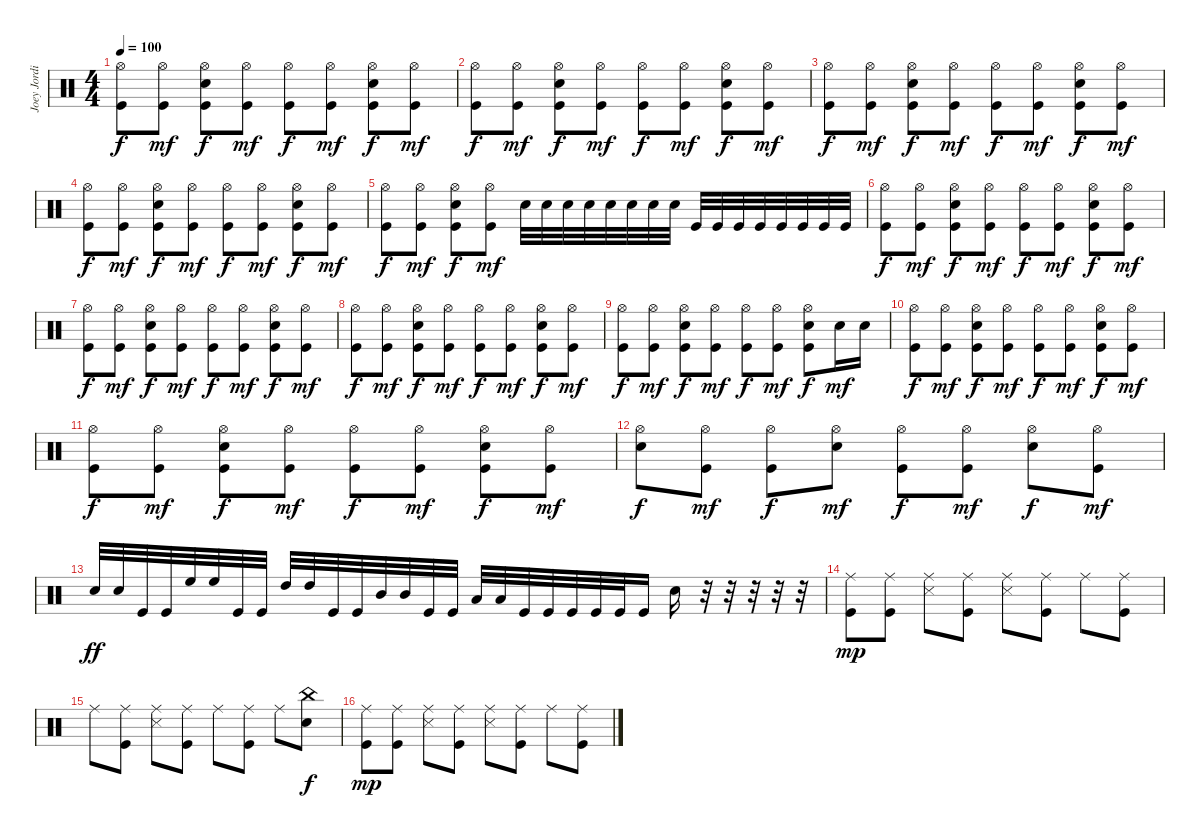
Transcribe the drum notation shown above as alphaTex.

\track ("Joey Jordison" "Joey Jordi") {instrument percussion}
\staff {score}
\articulation defaults
\ts (4 4)
\tempo 100
\clef neutral
\ks c
("Hi-Hat (open)" "Kick (hit)").8{dy f} ("Hi-Hat (open)" "Kick (hit)").8{dy mf} ("Hi-Hat (open)" "Kick (hit)" "Snare (hit) 2").8{dy f} ("Hi-Hat (open)" "Kick (hit)").8{dy mf} ("Hi-Hat (open)" "Kick (hit)").8{dy f} ("Hi-Hat (open)" "Kick (hit)").8{dy mf} ("Hi-Hat (open)" "Kick (hit)" "Snare (hit) 2").8{dy f} ("Hi-Hat (open)" "Kick (hit)").8{dy mf} |
("Hi-Hat (open)" "Kick (hit)").8{dy f} ("Hi-Hat (open)" "Kick (hit)").8{dy mf} ("Hi-Hat (open)" "Kick (hit)" "Snare (hit) 2").8{dy f} ("Hi-Hat (open)" "Kick (hit)").8{dy mf} ("Hi-Hat (open)" "Kick (hit)").8{dy f} ("Hi-Hat (open)" "Kick (hit)").8{dy mf} ("Hi-Hat (open)" "Kick (hit)" "Snare (hit) 2").8{dy f} ("Hi-Hat (open)" "Kick (hit)").8{dy mf} |
("Hi-Hat (open)" "Kick (hit)").8{dy f} ("Hi-Hat (open)" "Kick (hit)").8{dy mf} ("Hi-Hat (open)" "Kick (hit)" "Snare (hit) 2").8{dy f} ("Hi-Hat (open)" "Kick (hit)").8{dy mf} ("Hi-Hat (open)" "Kick (hit)").8{dy f} ("Hi-Hat (open)" "Kick (hit)").8{dy mf} ("Hi-Hat (open)" "Kick (hit)" "Snare (hit) 2").8{dy f} ("Hi-Hat (open)" "Kick (hit)").8{dy mf} |
("Hi-Hat (open)" "Kick (hit)").8{dy f} ("Hi-Hat (open)" "Kick (hit)").8{dy mf} ("Hi-Hat (open)" "Kick (hit)" "Snare (hit) 2").8{dy f} ("Hi-Hat (open)" "Kick (hit)").8{dy mf} ("Hi-Hat (open)" "Kick (hit)").8{dy f} ("Hi-Hat (open)" "Kick (hit)").8{dy mf} ("Hi-Hat (open)" "Kick (hit)" "Snare (hit) 2").8{dy f} ("Hi-Hat (open)" "Kick (hit)").8{dy mf} |
("Hi-Hat (open)" "Kick (hit)").8{dy f} ("Hi-Hat (open)" "Kick (hit)").8{dy mf} ("Hi-Hat (open)" "Kick (hit)" "Snare (hit) 2").8{dy f} ("Hi-Hat (open)" "Kick (hit)").8{dy mf} "Snare (hit) 2".32 "Snare (hit) 2".32 "Snare (hit) 2".32 "Snare (hit) 2".32 "Snare (hit) 2".32 "Snare (hit) 2".32 "Snare (hit) 2".32 "Snare (hit) 2".32 "Kick (hit)".32 "Kick (hit)".32 "Kick (hit)".32 "Kick (hit)".32 "Kick (hit)".32 "Kick (hit)".32 "Kick (hit)".32 "Kick (hit)".32 |
("Hi-Hat (open)" "Kick (hit)").8{dy f} ("Hi-Hat (open)" "Kick (hit)").8{dy mf} ("Hi-Hat (open)" "Kick (hit)" "Snare (hit) 2").8{dy f} ("Hi-Hat (open)" "Kick (hit)").8{dy mf} ("Hi-Hat (open)" "Kick (hit)").8{dy f} ("Hi-Hat (open)" "Kick (hit)").8{dy mf} ("Hi-Hat (open)" "Kick (hit)" "Snare (hit) 2").8{dy f} ("Hi-Hat (open)" "Kick (hit)").8{dy mf} |
("Hi-Hat (open)" "Kick (hit)").8{dy f} ("Hi-Hat (open)" "Kick (hit)").8{dy mf} ("Hi-Hat (open)" "Kick (hit)" "Snare (hit) 2").8{dy f} ("Hi-Hat (open)" "Kick (hit)").8{dy mf} ("Hi-Hat (open)" "Kick (hit)").8{dy f} ("Hi-Hat (open)" "Kick (hit)").8{dy mf} ("Hi-Hat (open)" "Kick (hit)" "Snare (hit) 2").8{dy f} ("Hi-Hat (open)" "Kick (hit)").8{dy mf} |
("Hi-Hat (open)" "Kick (hit)").8{dy f} ("Hi-Hat (open)" "Kick (hit)").8{dy mf} ("Hi-Hat (open)" "Kick (hit)" "Snare (hit) 2").8{dy f} ("Hi-Hat (open)" "Kick (hit)").8{dy mf} ("Hi-Hat (open)" "Kick (hit)").8{dy f} ("Hi-Hat (open)" "Kick (hit)").8{dy mf} ("Hi-Hat (open)" "Kick (hit)" "Snare (hit) 2").8{dy f} ("Hi-Hat (open)" "Kick (hit)").8{dy mf} |
("Hi-Hat (open)" "Kick (hit)").8{dy f} ("Hi-Hat (open)" "Kick (hit)").8{dy mf} ("Hi-Hat (open)" "Kick (hit)" "Snare (hit) 2").8{dy f} ("Hi-Hat (open)" "Kick (hit)").8{dy mf} ("Hi-Hat (open)" "Kick (hit)").8{dy f} ("Hi-Hat (open)" "Kick (hit)").8{dy mf} ("Hi-Hat (open)" "Kick (hit)" "Snare (hit) 2").8{dy f} "Snare (hit) 2".16{dy mf} "Snare (hit) 2".16 |
("Hi-Hat (open)" "Kick (hit)").8{dy f} ("Hi-Hat (open)" "Kick (hit)").8{dy mf} ("Hi-Hat (open)" "Kick (hit)" "Snare (hit) 2").8{dy f} ("Hi-Hat (open)" "Kick (hit)").8{dy mf} ("Hi-Hat (open)" "Kick (hit)").8{dy f} ("Hi-Hat (open)" "Kick (hit)").8{dy mf} ("Hi-Hat (open)" "Kick (hit)" "Snare (hit) 2").8{dy f} ("Hi-Hat (open)" "Kick (hit)").8{dy mf} |
("Hi-Hat (open)" "Kick (hit)").8{dy f} ("Hi-Hat (open)" "Kick (hit)").8{dy mf} ("Hi-Hat (open)" "Kick (hit)" "Snare (hit) 2").8{dy f} ("Hi-Hat (open)" "Kick (hit)").8{dy mf} ("Hi-Hat (open)" "Kick (hit)").8{dy f} ("Hi-Hat (open)" "Kick (hit)").8{dy mf} ("Hi-Hat (open)" "Kick (hit)" "Snare (hit) 2").8{dy f} ("Hi-Hat (open)" "Kick (hit)").8{dy mf} |
("Hi-Hat (open)" "Snare (hit) 2").8{dy f} ("Hi-Hat (open)" "Kick (hit)").8{dy mf} ("Hi-Hat (open)" "Kick (hit)").8{dy f} ("Hi-Hat (open)" "Snare (hit) 2").8{dy mf} ("Hi-Hat (open)" "Kick (hit)").8{dy f} ("Hi-Hat (open)" "Kick (hit)").8{dy mf} ("Hi-Hat (open)" "Snare (hit) 2").8{dy f} ("Hi-Hat (open)" "Kick (hit)").8{dy mf} |
"Snare (hit) 2".32{dy ff} "Snare (hit) 2".32 "Kick (hit)".32 "Kick (hit)".32 "High Floor Tom (hit)".32 "High Floor Tom (hit)".32 "Kick (hit)".32 "Kick (hit)".32 "High Tom (hit)".32 "High Tom (hit)".32 "Kick (hit)".32 "Kick (hit)".32 "Mid Tom (hit)".32 "Mid Tom (hit)".32 "Kick (hit)".32 "Kick (hit)".32 "Low Tom (hit)".32 "Low Tom (hit)".32 "Kick (hit)".32 "Kick (hit)".32 "Kick (hit)".32 "Kick (hit)".32 "Kick (hit)".32 "Kick (hit)".16 "Snare (hit) 2".16 r.32 r.32 r.32 r.32 r.32 |
("Kick (hit)" "Ride (middle)").8{dy mp} ("Kick (hit)" "Ride (middle)").8 ("Snare (side stick) 3" "Ride (middle)").8 ("Kick (hit)" "Ride (middle)").8 ("Snare (side stick) 3" "Ride (middle)").8 ("Kick (hit)" "Ride (middle)").8 "Ride (middle)".8 ("Kick (hit)" "Ride (middle)").8 |
"Ride (middle)".8 ("Kick (hit)" "Ride (middle)").8 ("Snare (side stick) 3" "Ride (middle)").8 ("Kick (hit)" "Ride (middle)").8 "Ride (middle)".8 ("Kick (hit)" "Ride (middle)").8 "Ride (middle)".8 ("Snare (hit) 2" "China (hit)").8{dy f} |
("Kick (hit)" "Ride (middle)").8{dy mp} ("Kick (hit)" "Ride (middle)").8 ("Snare (side stick) 3" "Ride (middle)").8 ("Kick (hit)" "Ride (middle)").8 ("Snare (side stick) 3" "Ride (middle)").8 ("Kick (hit)" "Ride (middle)").8 "Ride (middle)".8 ("Kick (hit)" "Ride (middle)").8
